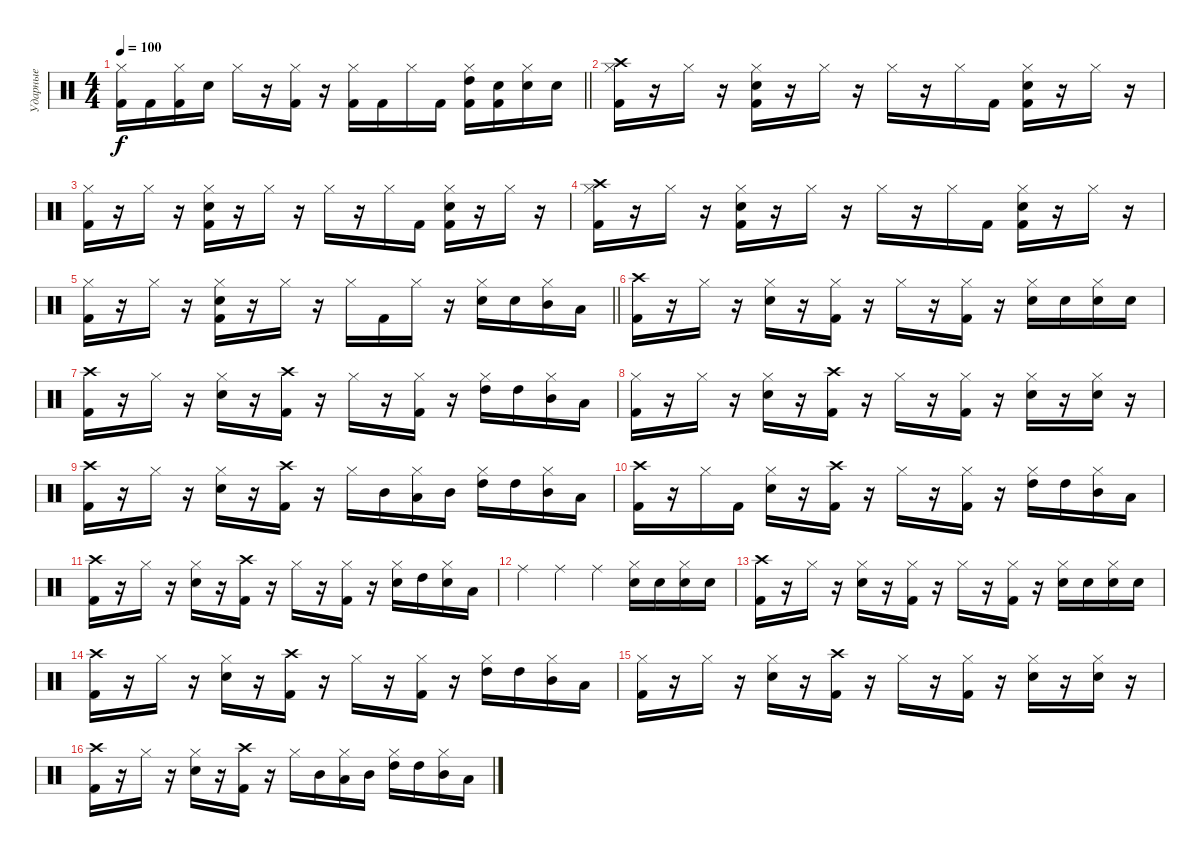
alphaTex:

\track ("Ударные" "Ударные") {instrument percussion}
\staff {score}
\articulation defaults
\ts (4 4)
\tempo 100
\clef neutral
\barLineRight lightlight
\ks c
("Hi-Hat (closed)" "Kick (hit) 2").16{dy f} "Kick (hit) 2".16 ("Hi-Hat (closed)" "Kick (hit) 2").16 "Electric Snare (hit)".16 "Hi-Hat (closed)".16 r.16 ("Hi-Hat (closed)" "Kick (hit) 2").16 r.16 ("Hi-Hat (closed)" "Kick (hit) 2").16 "Kick (hit) 2".16 "Hi-Hat (closed)".16 "Kick (hit) 2".16 ("Hi-Hat (closed)" "Kick (hit) 2" "High Tom (hit)").16 ("Kick (hit) 2" "Electric Snare (hit)").16 ("Hi-Hat (closed)" "Electric Snare (hit)").16 "Electric Snare (hit)".16 |
("Hi-Hat (closed)" "Kick (hit) 2" "Crash high (hit)").16 r.16 "Hi-Hat (closed)".16 r.16 ("Hi-Hat (closed)" "Kick (hit) 2" "Electric Snare (hit)").16 r.16 "Hi-Hat (closed)".16 r.16 "Hi-Hat (closed)".16 r.16 "Hi-Hat (closed)".16 "Kick (hit) 2".16 ("Hi-Hat (closed)" "Kick (hit) 2" "Electric Snare (hit)").16 r.16 "Hi-Hat (closed)".16 r.16 |
("Hi-Hat (closed)" "Kick (hit) 2").16 r.16 "Hi-Hat (closed)".16 r.16 ("Hi-Hat (closed)" "Kick (hit) 2" "Electric Snare (hit)").16 r.16 "Hi-Hat (closed)".16 r.16 "Hi-Hat (closed)".16 r.16 "Hi-Hat (closed)".16 "Kick (hit) 2".16 ("Hi-Hat (closed)" "Kick (hit) 2" "Electric Snare (hit)").16 r.16 "Hi-Hat (closed)".16 r.16 |
("Hi-Hat (closed)" "Kick (hit) 2" "Crash high (hit)").16 r.16 "Hi-Hat (closed)".16 r.16 ("Hi-Hat (closed)" "Kick (hit) 2" "Electric Snare (hit)").16 r.16 "Hi-Hat (closed)".16 r.16 "Hi-Hat (closed)".16 r.16 "Hi-Hat (closed)".16 "Kick (hit) 2".16 ("Hi-Hat (closed)" "Kick (hit) 2" "Electric Snare (hit)").16 r.16 "Hi-Hat (closed)".16 r.16 |
\barLineRight lightlight
("Hi-Hat (closed)" "Kick (hit) 2").16 r.16 "Hi-Hat (closed)".16 r.16 ("Hi-Hat (closed)" "Kick (hit) 2" "Electric Snare (hit)").16 r.16 "Hi-Hat (closed)".16 r.16 "Hi-Hat (closed)".16 "Kick (hit) 2".16 "Hi-Hat (closed)".16 r.16 ("Hi-Hat (closed)" "Electric Snare (hit)").16 "Electric Snare (hit)".16 ("Hi-Hat (closed)" "Mid Tom (hit)").16 "Low Tom (hit)".16 |
("Crash high (hit)" "Kick (hit) 2").16 r.16 "Hi-Hat (closed)".16 r.16 ("Hi-Hat (closed)" "Electric Snare (hit)").16 r.16 ("Hi-Hat (closed)" "Kick (hit) 2").16 r.16 "Hi-Hat (closed)".16 r.16 ("Hi-Hat (closed)" "Kick (hit) 2").16 r.16 ("Hi-Hat (closed)" "Electric Snare (hit)").16 "Electric Snare (hit)".16 ("Hi-Hat (closed)" "Electric Snare (hit)").16 "Electric Snare (hit)".16 |
("Crash high (hit)" "Kick (hit) 2").16 r.16 "Hi-Hat (closed)".16 r.16 ("Hi-Hat (closed)" "Electric Snare (hit)").16 r.16 ("Crash high (hit)" "Kick (hit) 2").16 r.16 "Hi-Hat (closed)".16 r.16 ("Hi-Hat (closed)" "Kick (hit) 2").16 r.16 ("Hi-Hat (closed)" "High Tom (hit)").16 "High Tom (hit)".16 ("Hi-Hat (closed)" "Mid Tom (hit)").16 "Low Tom (hit)".16 |
("Hi-Hat (closed)" "Kick (hit) 2").16 r.16 "Hi-Hat (closed)".16 r.16 ("Hi-Hat (closed)" "Electric Snare (hit)").16 r.16 ("Crash high (hit)" "Kick (hit) 2").16 r.16 "Hi-Hat (closed)".16 r.16 ("Hi-Hat (closed)" "Kick (hit) 2").16 r.16 ("Hi-Hat (closed)" "Electric Snare (hit)").16 r.16 ("Hi-Hat (closed)" "Electric Snare (hit)").16 r.16 |
("Crash high (hit)" "Kick (hit) 2").16 r.16 "Hi-Hat (closed)".16 r.16 ("Hi-Hat (closed)" "Electric Snare (hit)").16 r.16 ("Crash high (hit)" "Kick (hit) 2").16 r.16 "Hi-Hat (closed)".16 "Mid Tom (hit)".16 ("Hi-Hat (closed)" "Low Tom (hit)").16 "Mid Tom (hit)".16 ("Hi-Hat (closed)" "High Tom (hit)").16 "High Tom (hit)".16 ("Hi-Hat (closed)" "Mid Tom (hit)").16 "Low Tom (hit)".16 |
("Crash high (hit)" "Kick (hit) 2").16 r.16 "Hi-Hat (closed)".16 "Kick (hit) 2".16 ("Hi-Hat (closed)" "Electric Snare (hit)").16 r.16 ("Crash high (hit)" "Kick (hit) 2").16 r.16 "Hi-Hat (closed)".16 r.16 ("Hi-Hat (closed)" "Kick (hit) 2").16 r.16 ("Hi-Hat (closed)" "High Tom (hit)").16 "High Tom (hit)".16 ("Hi-Hat (closed)" "Mid Tom (hit)").16 "Low Tom (hit)".16 |
("Crash high (hit)" "Kick (hit) 2").16 r.16 "Hi-Hat (closed)".16 r.16 ("Hi-Hat (closed)" "Electric Snare (hit)").16 r.16 ("Crash high (hit)" "Kick (hit) 2").16 r.16 "Hi-Hat (closed)".16 r.16 ("Hi-Hat (closed)" "Kick (hit) 2").16 r.16 ("Hi-Hat (closed)" "Electric Snare (hit)").16 "High Tom (hit)".16 ("Hi-Hat (closed)" "Electric Snare (hit)").16 "Low Tom (hit)".16 |
"Ride (middle)".4 "Ride (middle)".4 "Ride (middle)".4 ("Hi-Hat (closed)" "Electric Snare (hit)").16 "Electric Snare (hit)".16 ("Hi-Hat (closed)" "Electric Snare (hit)").16 "Electric Snare (hit)".16 |
("Crash high (hit)" "Kick (hit) 2").16 r.16 "Hi-Hat (closed)".16 r.16 ("Hi-Hat (closed)" "Electric Snare (hit)").16 r.16 ("Hi-Hat (closed)" "Kick (hit) 2").16 r.16 "Hi-Hat (closed)".16 r.16 ("Hi-Hat (closed)" "Kick (hit) 2").16 r.16 ("Hi-Hat (closed)" "Electric Snare (hit)").16 "Electric Snare (hit)".16 ("Hi-Hat (closed)" "Electric Snare (hit)").16 "Electric Snare (hit)".16 |
("Crash high (hit)" "Kick (hit) 2").16 r.16 "Hi-Hat (closed)".16 r.16 ("Hi-Hat (closed)" "Electric Snare (hit)").16 r.16 ("Crash high (hit)" "Kick (hit) 2").16 r.16 "Hi-Hat (closed)".16 r.16 ("Hi-Hat (closed)" "Kick (hit) 2").16 r.16 ("Hi-Hat (closed)" "High Tom (hit)").16 "High Tom (hit)".16 ("Hi-Hat (closed)" "Mid Tom (hit)").16 "Low Tom (hit)".16 |
("Hi-Hat (closed)" "Kick (hit) 2").16 r.16 "Hi-Hat (closed)".16 r.16 ("Hi-Hat (closed)" "Electric Snare (hit)").16 r.16 ("Crash high (hit)" "Kick (hit) 2").16 r.16 "Hi-Hat (closed)".16 r.16 ("Hi-Hat (closed)" "Kick (hit) 2").16 r.16 ("Hi-Hat (closed)" "Electric Snare (hit)").16 r.16 ("Hi-Hat (closed)" "Electric Snare (hit)").16 r.16 |
("Crash high (hit)" "Kick (hit) 2").16 r.16 "Hi-Hat (closed)".16 r.16 ("Hi-Hat (closed)" "Electric Snare (hit)").16 r.16 ("Crash high (hit)" "Kick (hit) 2").16 r.16 "Hi-Hat (closed)".16 "Mid Tom (hit)".16 ("Hi-Hat (closed)" "Low Tom (hit)").16 "Mid Tom (hit)".16 ("Hi-Hat (closed)" "High Tom (hit)").16 "High Tom (hit)".16 ("Hi-Hat (closed)" "Mid Tom (hit)").16 "Low Tom (hit)".16
